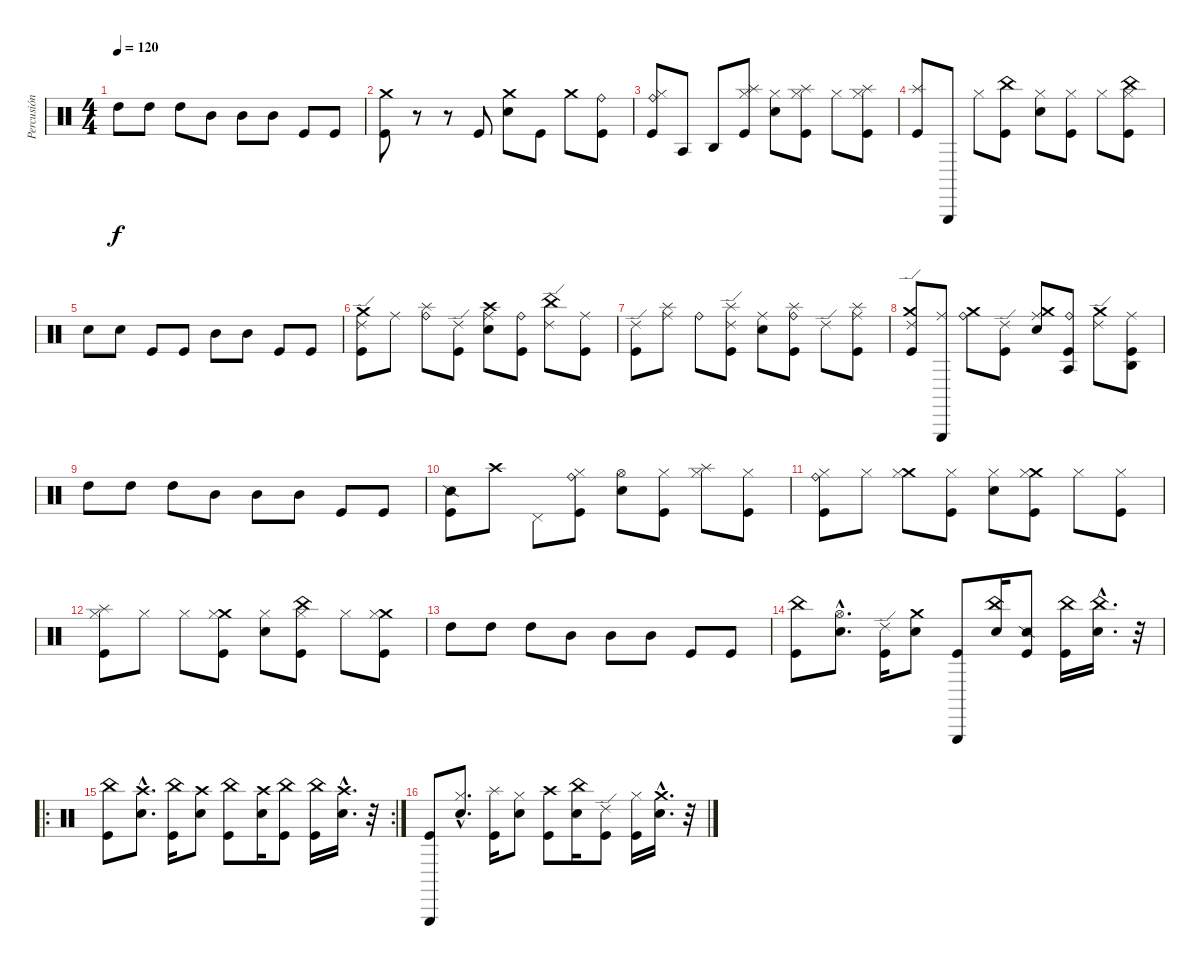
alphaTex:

\track ("Percusión" "Percusión") {instrument percussion}
\staff {score}
\articulation defaults
\ts (4 4)
\tempo 120
\clef neutral
\ks c "High Tom (hit)".8{dy f} "High Tom (hit)".8 "High Tom (hit)".8 "Mid Tom (hit)".8 "Mid Tom (hit)".8 "Mid Tom (hit)".8 "Kick (hit)".8 "Kick (hit)".8
|
("Crash medium (hit)" "Kick (hit)").8 r.8 r.8 "Kick (hit)".8 ("Crash medium (hit)" "Snare (hit) 2").8 "Kick (hit)".8 "Crash medium (hit)".8 ("Ride (bell)" "Kick (hit)").8 |
("Ride (bell)" "Hi-Hat (closed)" "Kick (hit)").8 "Agogo tow (hit)".8 "Agogo high (hit)".8 ("Splash (hit)" "Hi-Hat (closed)" "Kick (hit)").8 ("Hi-Hat (closed)" "Snare (hit) 2").8 ("Splash (hit)" "Hi-Hat (closed)" "Kick (hit)").8 "Hi-Hat (closed)".8 ("Splash (hit)" "Hi-Hat (closed)" "Kick (hit)").8 |
("Splash (hit)" "Kick (hit)").8 "Triangle (hit)".8 "Hi-Hat (closed)".8 ("China (hit)" "Kick (hit)").8 ("Hi-Hat (closed)" "Snare (hit) 2").8 ("Hi-Hat (closed)" "Kick (hit)").8 "Hi-Hat (closed)".8 ("China (hit)" "Hi-Hat (closed)" "Kick (hit)").8 |
"Snare (hit) 2".8 "Snare (hit) 2".8 "Kick (hit)".8 "Kick (hit)".8 "Mid Tom (hit)".8 "Mid Tom (hit)".8 "Kick (hit)".8 "Kick (hit)".8 |
("Crash medium (hit)" "Ride (edge) 2" "Kick (hit)").8 "Ride (middle)".8 ("Splash (hit)" "Ride (bell)").8 ("Ride (edge) 2" "Kick (hit)").8 ("Crash high (hit)" "Ride (middle)" "Snare (hit) 2").8 ("Ride (bell)" "Kick (hit)").8 ("China (hit)" "Ride (edge) 2").8 ("Ride (middle)" "Kick (hit)").8 |
("Ride (edge) 2" "Kick (hit)").8 ("Splash (hit)" "Ride (middle)").8 "Ride (bell)".8 ("Splash (hit)" "Ride (edge) 2" "Kick (hit)").8 ("Ride (middle)" "Snare (hit) 2").8 ("Splash (hit)" "Ride (bell)" "Kick (hit)").8 "Ride (edge) 2".8 ("Splash (hit)" "Ride (middle)" "Kick (hit)").8 |
("Crash medium (hit)" "Ride (edge) 2" "Kick (hit)").8 ("Triangle (hit)" "Ride (middle)").8 ("Crash medium (hit)" "Ride (bell)").8 ("Ride (edge) 2" "Kick (hit)").8 ("Crash medium (hit)" "Ride (middle)" "Snare (hit) 2").8 ("Agogo tow (hit)" "Ride (bell)" "Kick (hit)").8 ("Crash medium (hit)" "Ride (edge) 2").8 ("Agogo high (hit)" "Ride (middle)" "Kick (hit)").8 |
"High Tom (hit)".8 "High Tom (hit)".8 "High Tom (hit)".8 "Mid Tom (hit)".8 "Mid Tom (hit)".8 "Mid Tom (hit)".8 "Kick (hit)".8 "Kick (hit)".8 |
("Snare (side stick) 2" "Kick (hit)").8 "Crash high (hit)".8 "Pedal Hi-Hat (hit)".8 ("Ride (bell)" "Hi-Hat (closed)" "Kick (hit)").8 ("Hi-Hat (open)" "Snare (hit) 2").8 ("Hi-Hat (closed)" "Kick (hit)").8 ("Splash (hit)" "Hi-Hat (closed)").8 ("Hi-Hat (closed)" "Kick (hit)").8 |
("Ride (bell)" "Hi-Hat (closed)" "Kick (hit)").8 "Hi-Hat (closed)".8 ("Crash medium (hit)" "Hi-Hat (closed)").8 ("Hi-Hat (closed)" "Kick (hit)").8 ("Hi-Hat (closed)" "Snare (hit) 2").8 ("Crash medium (hit)" "Hi-Hat (closed)" "Kick (hit)").8 "Hi-Hat (closed)".8 ("Hi-Hat (closed)" "Kick (hit)").8 |
("Splash (hit)" "Hi-Hat (closed)" "Kick (hit)").8 "Hi-Hat (closed)".8 "Hi-Hat (closed)".8 ("Crash medium (hit)" "Hi-Hat (closed)" "Kick (hit)").8 ("Hi-Hat (closed)" "Snare (hit) 2").8 ("China (hit)" "Hi-Hat (closed)" "Kick (hit)").8 "Hi-Hat (closed)".8 ("Crash medium (hit)" "Hi-Hat (closed)" "Kick (hit)").8 |
"High Tom (hit)".8 "High Tom (hit)".8 "High Tom (hit)".8 "Mid Tom (hit)".8 "Mid Tom (hit)".8 "Mid Tom (hit)".8 "Kick (hit)".8 "Kick (hit)".8 |
("China (hit)" "Kick (hit)").8 ("Hi-Hat (open)"{hac} "Snare (hit) 2"{hac}).8{d} ("Ride (edge) 2" "Kick (hit)").16 ("Crash medium (hit)" "Snare (hit) 2").8 ("Triangle (hit)" "Kick (hit)").8 ("China (hit)" "Snare (hit) 2").16 ("Snare (side stick) 2" "Kick (hit)").8 ("China (hit)" "Kick (hit)").16 ("China (hit)"{hac} "Snare (hit) 2"{hac}).16{d} r.32 |
\ro
\rc 2
("China (hit)" "Kick (hit)").8 ("Crash high (hit)"{hac} "Snare (hit) 2"{hac}).8{d} ("China (hit)" "Kick (hit)").16 ("Crash high (hit)" "Snare (hit) 2").8 ("China (hit)" "Kick (hit)").8 ("Crash high (hit)" "Snare (hit) 2").16 ("China (hit)" "Kick (hit)").8 ("China (hit)" "Kick (hit)").16 ("Crash high (hit)"{hac} "Snare (hit) 2"{hac}).16{d} r.32 |
("Triangle (hit)" "Kick (hit)").8 ("Hi-Hat (closed)"{hac} "Snare (hit) 2"{hac}).8{d} ("Splash (hit)" "Kick (hit)").16 ("Hi-Hat (closed)" "Snare (hit) 2").8 ("Crash high (hit)" "Kick (hit)").8 ("China (hit)" "Snare (hit) 2").16 ("Ride (edge) 2" "Kick (hit)").8 ("Hi-Hat (closed)" "Kick (hit)").16 ("Crash medium (hit)"{hac} "Snare (hit) 2"{hac}).16{d} r.32
